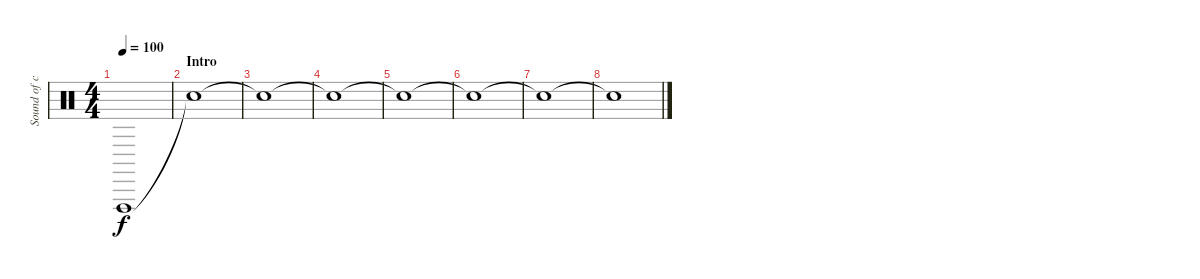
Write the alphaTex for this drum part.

\track ("Sound of crowd" "Sound of c") {instrument percussion}
\staff {score}
\articulation defaults
\ts (4 4)
\tempo 100
\clef neutral
\ks c "Vibraslap (hit)".1{dy f}
|
\section ("" "Intro")
"Snare (hit)"{t}.1{volume 13} |
"Snare (hit)"{t}.1{volume 11} |
"Snare (hit)"{t}.1{volume 9} |
"Snare (hit)"{t}.1 |
"Snare (hit)"{t}.1 |
"Snare (hit)"{t}.1 |
"Snare (hit)"{t}.1
